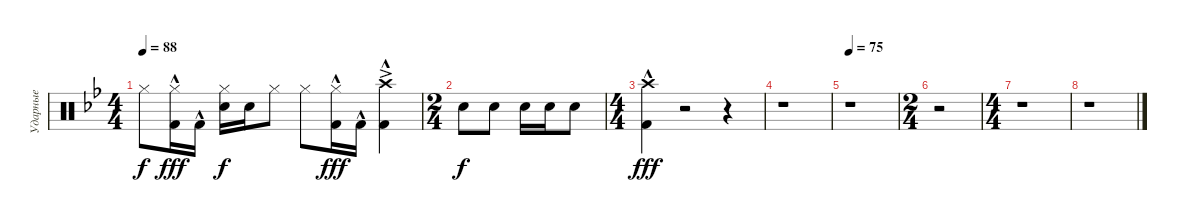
\track ("Ударные" "Ударные") {instrument percussion}
\staff
\articulation defaults
\ts (4 4)
\tempo 88
\clef neutral
\ks bb "Hi-Hat (closed)".8{dy f}
("Hi-Hat (closed)" "Kick (hit) 2"{hac}).16{dy fff} "Kick (hit) 2"{hac}.16 ("Hi-Hat (closed)" "Snare (hit) 2").16{dy f} "Snare (hit) 2".16 "Hi-Hat (closed)".8 "Hi-Hat (closed)".8 ("Hi-Hat (closed)" "Kick (hit) 2"{hac}).16{dy fff} "Kick (hit) 2"{hac}.16 ("Crash high (hit)"{ac} "Kick (hit) 2"{hac}).4 |
\ts (2 4)
"Snare (hit) 2".8{dy f} "Snare (hit) 2".8 "Snare (hit) 2".16 "Snare (hit) 2".16 "Snare (hit) 2".8 |
\ts (4 4)
("Crash high (hit)"{hac} "Kick (hit) 2").4{dy fff} r.2 r.4 |
r.1 |
\tempo 75
r.1 |
\ts (2 4)
r.2 |
\ts (4 4)
r.1 |
r.1
